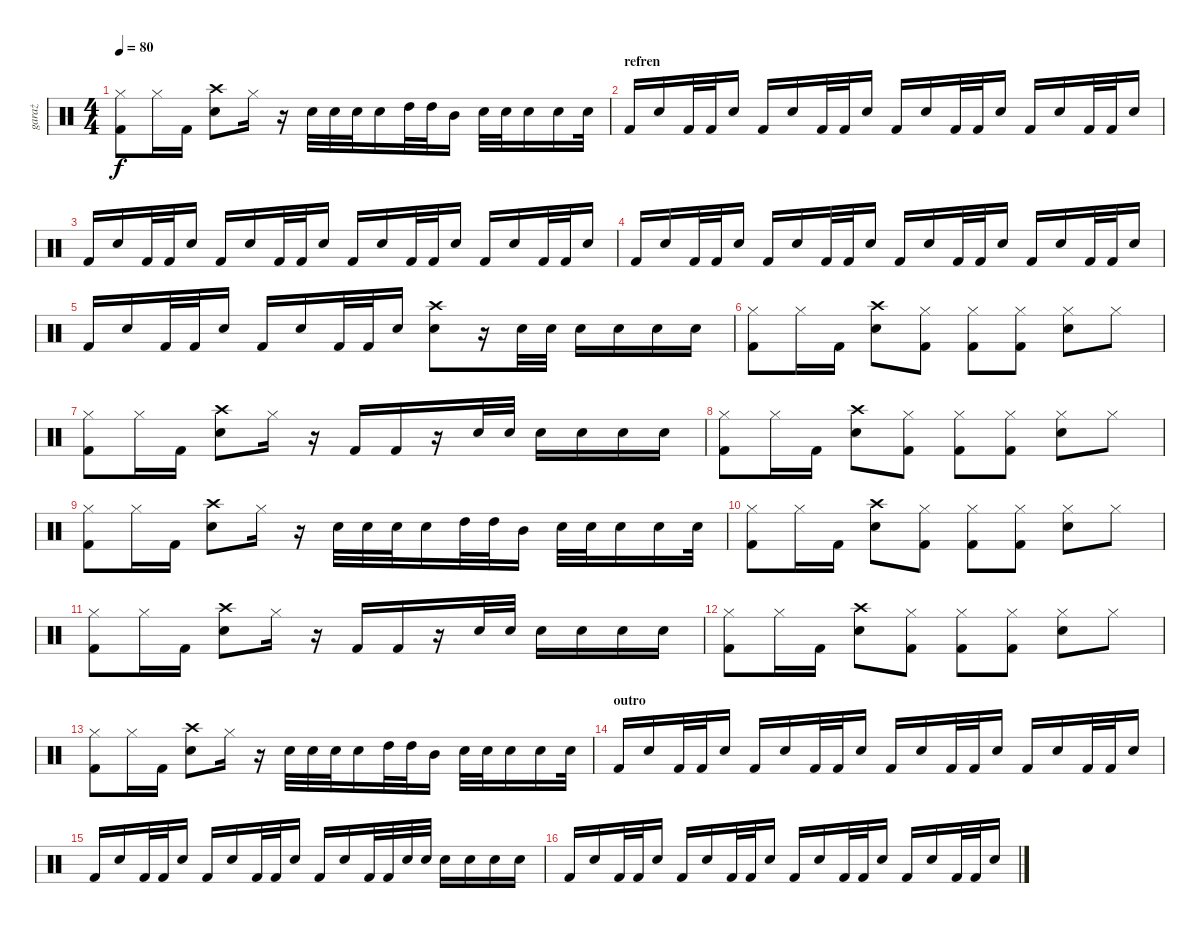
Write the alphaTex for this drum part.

\track ("garaż" "garaż") {instrument percussion}
\staff {score}
\articulation defaults
\ts (4 4)
\tempo 80
\clef neutral
\ks c
("Hi-Hat (closed)" "Kick (hit) 2").8{dy f} "Hi-Hat (closed)".16 "Kick (hit) 2".16 ("Crash high (hit)" "Snare (hit) 2").8 "Hi-Hat (closed)".16 r.16 "Snare (hit) 2".32 "Snare (hit) 2".32 "Snare (hit) 2".32 "Snare (hit) 2".16 "High Tom (hit)".32 "High Tom (hit)".32 "Mid Tom (hit)".16 "Snare (hit) 2".32 "Snare (hit) 2".32 "Snare (hit) 2".16 "Snare (hit) 2".16 "Snare (hit) 2".32 |
\section ("" "refren")
"Kick (hit) 2".16 "Snare (hit) 2".16 "Kick (hit) 2".32 "Kick (hit) 2".32 "Snare (hit) 2".16 "Kick (hit) 2".16 "Snare (hit) 2".16 "Kick (hit) 2".32 "Kick (hit) 2".32 "Snare (hit) 2".16 "Kick (hit) 2".16 "Snare (hit) 2".16 "Kick (hit) 2".32 "Kick (hit) 2".32 "Snare (hit) 2".16 "Kick (hit) 2".16 "Snare (hit) 2".16 "Kick (hit) 2".32 "Kick (hit) 2".32 "Snare (hit) 2".16 |
"Kick (hit) 2".16 "Snare (hit) 2".16 "Kick (hit) 2".32 "Kick (hit) 2".32 "Snare (hit) 2".16 "Kick (hit) 2".16 "Snare (hit) 2".16 "Kick (hit) 2".32 "Kick (hit) 2".32 "Snare (hit) 2".16 "Kick (hit) 2".16 "Snare (hit) 2".16 "Kick (hit) 2".32 "Kick (hit) 2".32 "Snare (hit) 2".16 "Kick (hit) 2".16 "Snare (hit) 2".16 "Kick (hit) 2".32 "Kick (hit) 2".32 "Snare (hit) 2".16 |
"Kick (hit) 2".16 "Snare (hit) 2".16 "Kick (hit) 2".32 "Kick (hit) 2".32 "Snare (hit) 2".16 "Kick (hit) 2".16 "Snare (hit) 2".16 "Kick (hit) 2".32 "Kick (hit) 2".32 "Snare (hit) 2".16 "Kick (hit) 2".16 "Snare (hit) 2".16 "Kick (hit) 2".32 "Kick (hit) 2".32 "Snare (hit) 2".16 "Kick (hit) 2".16 "Snare (hit) 2".16 "Kick (hit) 2".32 "Kick (hit) 2".32 "Snare (hit) 2".16 |
"Kick (hit) 2".16 "Snare (hit) 2".16 "Kick (hit) 2".32 "Kick (hit) 2".32 "Snare (hit) 2".16 "Kick (hit) 2".16 "Snare (hit) 2".16 "Kick (hit) 2".32 "Kick (hit) 2".32 "Snare (hit) 2".16 ("Crash high (hit)" "Snare (hit) 2").8 r.16 "Snare (hit) 2".32 "Snare (hit) 2".32 "Snare (hit) 2".16 "Snare (hit) 2".16 "Snare (hit) 2".16 "Snare (hit) 2".16 |
("Hi-Hat (closed)" "Kick (hit) 2").8 "Hi-Hat (closed)".16 "Kick (hit) 2".16 ("Crash high (hit)" "Snare (hit) 2").8 ("Hi-Hat (closed)" "Kick (hit) 2").8 ("Hi-Hat (closed)" "Kick (hit) 2").8 ("Hi-Hat (closed)" "Kick (hit) 2").8 ("Hi-Hat (closed)" "Snare (hit) 2").8 "Hi-Hat (closed)".8 |
("Hi-Hat (closed)" "Kick (hit) 2").8 "Hi-Hat (closed)".16 "Kick (hit) 2".16 ("Crash high (hit)" "Snare (hit) 2").8 "Hi-Hat (closed)".16 r.16 "Kick (hit) 2".16 "Kick (hit) 2".16 r.16 "Snare (hit) 2".32 "Snare (hit) 2".32 "Snare (hit) 2".16 "Snare (hit) 2".16 "Snare (hit) 2".16 "Snare (hit) 2".16 |
("Hi-Hat (closed)" "Kick (hit) 2").8 "Hi-Hat (closed)".16 "Kick (hit) 2".16 ("Crash high (hit)" "Snare (hit) 2").8 ("Hi-Hat (closed)" "Kick (hit) 2").8 ("Hi-Hat (closed)" "Kick (hit) 2").8 ("Hi-Hat (closed)" "Kick (hit) 2").8 ("Hi-Hat (closed)" "Snare (hit) 2").8 "Hi-Hat (closed)".8 |
("Hi-Hat (closed)" "Kick (hit) 2").8 "Hi-Hat (closed)".16 "Kick (hit) 2".16 ("Crash high (hit)" "Snare (hit) 2").8 "Hi-Hat (closed)".16 r.16 "Snare (hit) 2".32 "Snare (hit) 2".32 "Snare (hit) 2".32 "Snare (hit) 2".16 "High Tom (hit)".32 "High Tom (hit)".32 "Mid Tom (hit)".16 "Snare (hit) 2".32 "Snare (hit) 2".32 "Snare (hit) 2".16 "Snare (hit) 2".16 "Snare (hit) 2".32 |
("Hi-Hat (closed)" "Kick (hit) 2").8 "Hi-Hat (closed)".16 "Kick (hit) 2".16 ("Crash high (hit)" "Snare (hit) 2").8 ("Hi-Hat (closed)" "Kick (hit) 2").8 ("Hi-Hat (closed)" "Kick (hit) 2").8 ("Hi-Hat (closed)" "Kick (hit) 2").8 ("Hi-Hat (closed)" "Snare (hit) 2").8 "Hi-Hat (closed)".8 |
("Hi-Hat (closed)" "Kick (hit) 2").8 "Hi-Hat (closed)".16 "Kick (hit) 2".16 ("Crash high (hit)" "Snare (hit) 2").8 "Hi-Hat (closed)".16 r.16 "Kick (hit) 2".16 "Kick (hit) 2".16 r.16 "Snare (hit) 2".32 "Snare (hit) 2".32 "Snare (hit) 2".16 "Snare (hit) 2".16 "Snare (hit) 2".16 "Snare (hit) 2".16 |
("Hi-Hat (closed)" "Kick (hit) 2").8 "Hi-Hat (closed)".16 "Kick (hit) 2".16 ("Crash high (hit)" "Snare (hit) 2").8 ("Hi-Hat (closed)" "Kick (hit) 2").8 ("Hi-Hat (closed)" "Kick (hit) 2").8 ("Hi-Hat (closed)" "Kick (hit) 2").8 ("Hi-Hat (closed)" "Snare (hit) 2").8 "Hi-Hat (closed)".8 |
("Hi-Hat (closed)" "Kick (hit) 2").8 "Hi-Hat (closed)".16 "Kick (hit) 2".16 ("Crash high (hit)" "Snare (hit) 2").8 "Hi-Hat (closed)".16 r.16 "Snare (hit) 2".32 "Snare (hit) 2".32 "Snare (hit) 2".32 "Snare (hit) 2".16 "High Tom (hit)".32 "High Tom (hit)".32 "Mid Tom (hit)".16 "Snare (hit) 2".32 "Snare (hit) 2".32 "Snare (hit) 2".16 "Snare (hit) 2".16 "Snare (hit) 2".32 |
\section ("" "outro")
"Kick (hit) 2".16 "Snare (hit) 2".16 "Kick (hit) 2".32 "Kick (hit) 2".32 "Snare (hit) 2".16 "Kick (hit) 2".16 "Snare (hit) 2".16 "Kick (hit) 2".32 "Kick (hit) 2".32 "Snare (hit) 2".16 "Kick (hit) 2".16 "Snare (hit) 2".16 "Kick (hit) 2".32 "Kick (hit) 2".32 "Snare (hit) 2".16 "Kick (hit) 2".16 "Snare (hit) 2".16 "Kick (hit) 2".32 "Kick (hit) 2".32 "Snare (hit) 2".16 |
"Kick (hit) 2".16 "Snare (hit) 2".16 "Kick (hit) 2".32 "Kick (hit) 2".32 "Snare (hit) 2".16 "Kick (hit) 2".16 "Snare (hit) 2".16 "Kick (hit) 2".32 "Kick (hit) 2".32 "Snare (hit) 2".16 "Kick (hit) 2".16 "Snare (hit) 2".16 "Kick (hit) 2".32 "Kick (hit) 2".32 "Snare (hit) 2".32 "Snare (hit) 2".32 "Snare (hit) 2".16 "Snare (hit) 2".16 "Snare (hit) 2".16 "Snare (hit) 2".16 |
"Kick (hit) 2".16 "Snare (hit) 2".16 "Kick (hit) 2".32 "Kick (hit) 2".32 "Snare (hit) 2".16 "Kick (hit) 2".16 "Snare (hit) 2".16 "Kick (hit) 2".32 "Kick (hit) 2".32 "Snare (hit) 2".16 "Kick (hit) 2".16 "Snare (hit) 2".16 "Kick (hit) 2".32 "Kick (hit) 2".32 "Snare (hit) 2".16 "Kick (hit) 2".16 "Snare (hit) 2".16 "Kick (hit) 2".32 "Kick (hit) 2".32 "Snare (hit) 2".16
